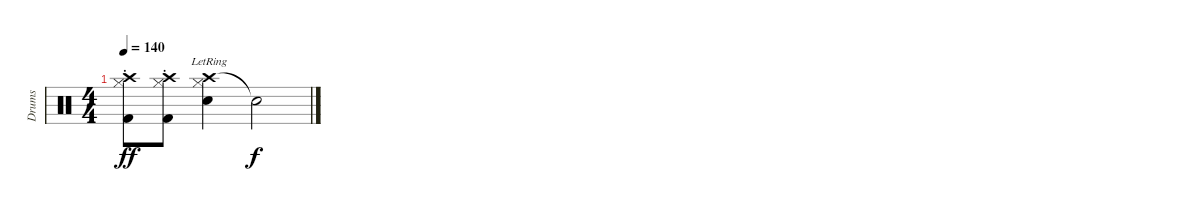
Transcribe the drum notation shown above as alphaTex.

\track ("Drums" "Drums") {instrument percussion}
\staff {score}
\articulation defaults
\ts (4 4)
\tempo 140
\clef neutral
\ks c
("Crash high (hit)"{st} "Hi-Hat (closed)" "Kick (hit) 2").8{dy ff volume 12} ("Crash high (hit)"{st} "Hi-Hat (closed)" "Kick (hit) 2").8 ("Crash high (hit)"{lr} "Hi-Hat (closed)" "Snare (hit) 2").4 "Snare (hit)"{t}.2{dy f}
